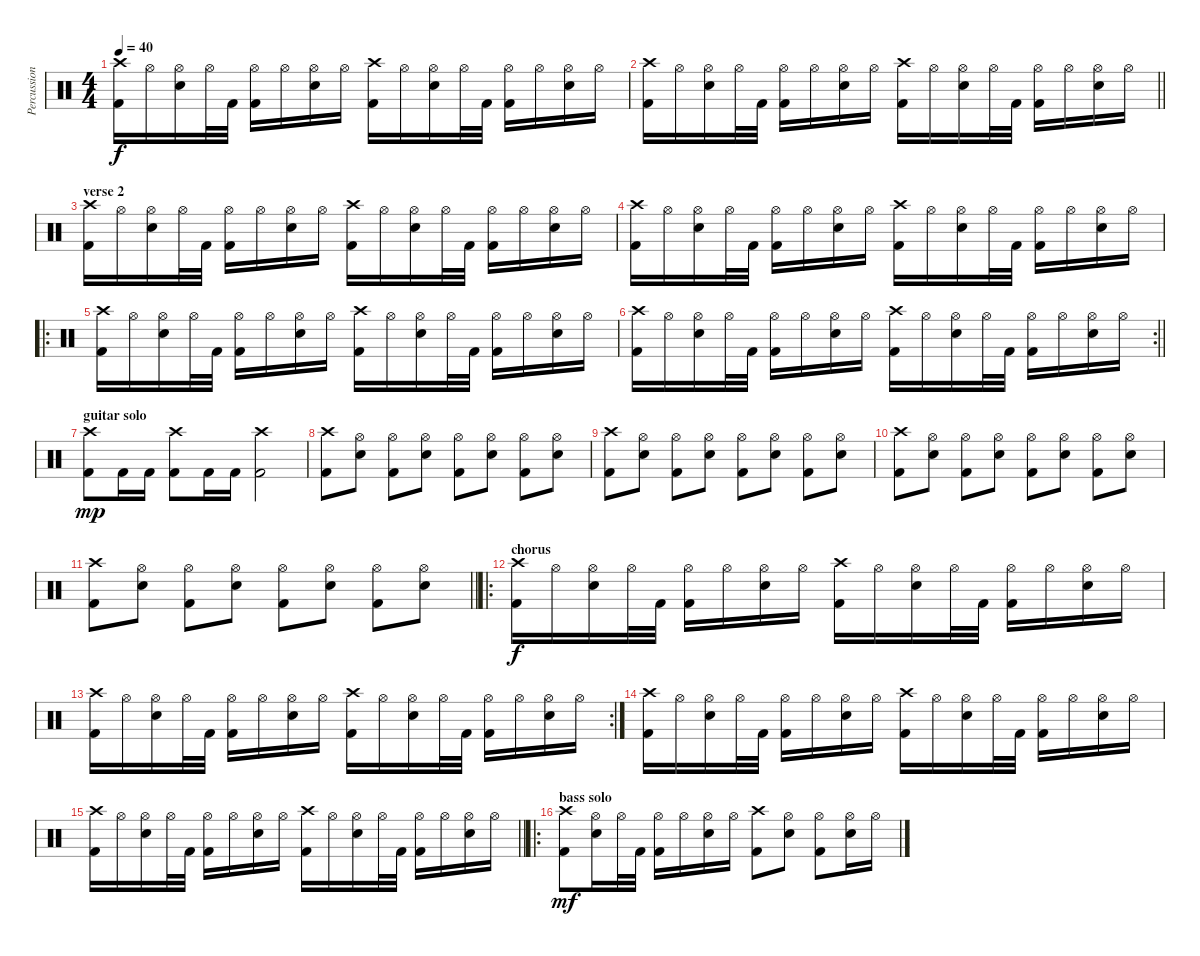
\track ("Percussion" "Percussion") {instrument percussion}
\staff {score}
\articulation defaults
\ts (4 4)
\tempo 40
\clef neutral
\ks c
("Crash high (hit)" "Kick (hit) 2").16{dy f} "Hi-Hat (open)".16 ("Hi-Hat (open)" "Snare (hit) 2").16 "Hi-Hat (open)".32 "Kick (hit) 2".32 ("Hi-Hat (open)" "Kick (hit) 2").16 "Hi-Hat (open)".16 ("Hi-Hat (open)" "Snare (hit) 2").16 "Hi-Hat (open)".16 ("Crash high (hit)" "Kick (hit) 2").16 "Hi-Hat (open)".16 ("Hi-Hat (open)" "Snare (hit) 2").16 "Hi-Hat (open)".32 "Kick (hit) 2".32 ("Hi-Hat (open)" "Kick (hit) 2").16 "Hi-Hat (open)".16 ("Hi-Hat (open)" "Snare (hit) 2").16 "Hi-Hat (open)".16 |
\barLineRight lightlight
("Crash high (hit)" "Kick (hit) 2").16 "Hi-Hat (open)".16 ("Hi-Hat (open)" "Snare (hit) 2").16 "Hi-Hat (open)".32 "Kick (hit) 2".32 ("Hi-Hat (open)" "Kick (hit) 2").16 "Hi-Hat (open)".16 ("Hi-Hat (open)" "Snare (hit) 2").16 "Hi-Hat (open)".16 ("Crash high (hit)" "Kick (hit) 2").16 "Hi-Hat (open)".16 ("Hi-Hat (open)" "Snare (hit) 2").16 "Hi-Hat (open)".32 "Kick (hit) 2".32 ("Hi-Hat (open)" "Kick (hit) 2").16 "Hi-Hat (open)".16 ("Hi-Hat (open)" "Snare (hit) 2").16 "Hi-Hat (open)".16 |
\section ("" "verse 2")
("Crash high (hit)" "Kick (hit) 2").16 "Hi-Hat (open)".16 ("Hi-Hat (open)" "Snare (hit) 2").16 "Hi-Hat (open)".32 "Kick (hit) 2".32 ("Hi-Hat (open)" "Kick (hit) 2").16 "Hi-Hat (open)".16 ("Hi-Hat (open)" "Snare (hit) 2").16 "Hi-Hat (open)".16 ("Crash high (hit)" "Kick (hit) 2").16 "Hi-Hat (open)".16 ("Hi-Hat (open)" "Snare (hit) 2").16 "Hi-Hat (open)".32 "Kick (hit) 2".32 ("Hi-Hat (open)" "Kick (hit) 2").16 "Hi-Hat (open)".16 ("Hi-Hat (open)" "Snare (hit) 2").16 "Hi-Hat (open)".16 |
("Crash high (hit)" "Kick (hit) 2").16 "Hi-Hat (open)".16 ("Hi-Hat (open)" "Snare (hit) 2").16 "Hi-Hat (open)".32 "Kick (hit) 2".32 ("Hi-Hat (open)" "Kick (hit) 2").16 "Hi-Hat (open)".16 ("Hi-Hat (open)" "Snare (hit) 2").16 "Hi-Hat (open)".16 ("Crash high (hit)" "Kick (hit) 2").16 "Hi-Hat (open)".16 ("Hi-Hat (open)" "Snare (hit) 2").16 "Hi-Hat (open)".32 "Kick (hit) 2".32 ("Hi-Hat (open)" "Kick (hit) 2").16 "Hi-Hat (open)".16 ("Hi-Hat (open)" "Snare (hit) 2").16 "Hi-Hat (open)".16 |
\ro
("Crash high (hit)" "Kick (hit) 2").16 "Hi-Hat (open)".16 ("Hi-Hat (open)" "Snare (hit) 2").16 "Hi-Hat (open)".32 "Kick (hit) 2".32 ("Hi-Hat (open)" "Kick (hit) 2").16 "Hi-Hat (open)".16 ("Hi-Hat (open)" "Snare (hit) 2").16 "Hi-Hat (open)".16 ("Crash high (hit)" "Kick (hit) 2").16 "Hi-Hat (open)".16 ("Hi-Hat (open)" "Snare (hit) 2").16 "Hi-Hat (open)".32 "Kick (hit) 2".32 ("Hi-Hat (open)" "Kick (hit) 2").16 "Hi-Hat (open)".16 ("Hi-Hat (open)" "Snare (hit) 2").16 "Hi-Hat (open)".16 |
\rc 2
\barLineRight lightlight
("Crash high (hit)" "Kick (hit) 2").16 "Hi-Hat (open)".16 ("Hi-Hat (open)" "Snare (hit) 2").16 "Hi-Hat (open)".32 "Kick (hit) 2".32 ("Hi-Hat (open)" "Kick (hit) 2").16 "Hi-Hat (open)".16 ("Hi-Hat (open)" "Snare (hit) 2").16 "Hi-Hat (open)".16 ("Crash high (hit)" "Kick (hit) 2").16 "Hi-Hat (open)".16 ("Hi-Hat (open)" "Snare (hit) 2").16 "Hi-Hat (open)".32 "Kick (hit) 2".32 ("Hi-Hat (open)" "Kick (hit) 2").16 "Hi-Hat (open)".16 ("Hi-Hat (open)" "Snare (hit) 2").16 "Hi-Hat (open)".16 |
\section ("" "guitar solo")
("Crash high (hit)" "Kick (hit) 2").8{dy mp} "Kick (hit) 2".16 "Kick (hit) 2".16 ("Crash high (hit)" "Kick (hit) 2").8 "Kick (hit) 2".16 "Kick (hit) 2".16 ("Crash high (hit)" "Kick (hit) 2").2 |
("Crash high (hit)" "Kick (hit) 2").8 ("Hi-Hat (open)" "Snare (hit) 2").8 ("Hi-Hat (open)" "Kick (hit) 2").8 ("Hi-Hat (open)" "Snare (hit) 2").8 ("Hi-Hat (open)" "Kick (hit) 2").8 ("Hi-Hat (open)" "Snare (hit) 2").8 ("Hi-Hat (open)" "Kick (hit) 2").8 ("Hi-Hat (open)" "Snare (hit) 2").8 |
("Crash high (hit)" "Kick (hit) 2").8 ("Hi-Hat (open)" "Snare (hit) 2").8 ("Hi-Hat (open)" "Kick (hit) 2").8 ("Hi-Hat (open)" "Snare (hit) 2").8 ("Hi-Hat (open)" "Kick (hit) 2").8 ("Hi-Hat (open)" "Snare (hit) 2").8 ("Hi-Hat (open)" "Kick (hit) 2").8 ("Hi-Hat (open)" "Snare (hit) 2").8 |
("Crash high (hit)" "Kick (hit) 2").8 ("Hi-Hat (open)" "Snare (hit) 2").8 ("Hi-Hat (open)" "Kick (hit) 2").8 ("Hi-Hat (open)" "Snare (hit) 2").8 ("Hi-Hat (open)" "Kick (hit) 2").8 ("Hi-Hat (open)" "Snare (hit) 2").8 ("Hi-Hat (open)" "Kick (hit) 2").8 ("Hi-Hat (open)" "Snare (hit) 2").8 |
\barLineRight lightlight
("Crash high (hit)" "Kick (hit) 2").8 ("Hi-Hat (open)" "Snare (hit) 2").8 ("Hi-Hat (open)" "Kick (hit) 2").8 ("Hi-Hat (open)" "Snare (hit) 2").8 ("Hi-Hat (open)" "Kick (hit) 2").8 ("Hi-Hat (open)" "Snare (hit) 2").8 ("Hi-Hat (open)" "Kick (hit) 2").8 ("Hi-Hat (open)" "Snare (hit) 2").8 |
\ro
\section ("" "chorus")
("Crash high (hit)" "Kick (hit) 2").16{dy f} "Hi-Hat (open)".16 ("Hi-Hat (open)" "Snare (hit) 2").16 "Hi-Hat (open)".32 "Kick (hit) 2".32 ("Hi-Hat (open)" "Kick (hit) 2").16 "Hi-Hat (open)".16 ("Hi-Hat (open)" "Snare (hit) 2").16 "Hi-Hat (open)".16 ("Crash high (hit)" "Kick (hit) 2").16 "Hi-Hat (open)".16 ("Hi-Hat (open)" "Snare (hit) 2").16 "Hi-Hat (open)".32 "Kick (hit) 2".32 ("Hi-Hat (open)" "Kick (hit) 2").16 "Hi-Hat (open)".16 ("Hi-Hat (open)" "Snare (hit) 2").16 "Hi-Hat (open)".16 |
\rc 2
("Crash high (hit)" "Kick (hit) 2").16 "Hi-Hat (open)".16 ("Hi-Hat (open)" "Snare (hit) 2").16 "Hi-Hat (open)".32 "Kick (hit) 2".32 ("Hi-Hat (open)" "Kick (hit) 2").16 "Hi-Hat (open)".16 ("Hi-Hat (open)" "Snare (hit) 2").16 "Hi-Hat (open)".16 ("Crash high (hit)" "Kick (hit) 2").16 "Hi-Hat (open)".16 ("Hi-Hat (open)" "Snare (hit) 2").16 "Hi-Hat (open)".32 "Kick (hit) 2".32 ("Hi-Hat (open)" "Kick (hit) 2").16 "Hi-Hat (open)".16 ("Hi-Hat (open)" "Snare (hit) 2").16 "Hi-Hat (open)".16 |
("Crash high (hit)" "Kick (hit) 2").16 "Hi-Hat (open)".16 ("Hi-Hat (open)" "Snare (hit) 2").16 "Hi-Hat (open)".32 "Kick (hit) 2".32 ("Hi-Hat (open)" "Kick (hit) 2").16 "Hi-Hat (open)".16 ("Hi-Hat (open)" "Snare (hit) 2").16 "Hi-Hat (open)".16 ("Crash high (hit)" "Kick (hit) 2").16 "Hi-Hat (open)".16 ("Hi-Hat (open)" "Snare (hit) 2").16 "Hi-Hat (open)".32 "Kick (hit) 2".32 ("Hi-Hat (open)" "Kick (hit) 2").16 "Hi-Hat (open)".16 ("Hi-Hat (open)" "Snare (hit) 2").16 "Hi-Hat (open)".16 |
\barLineRight lightlight
("Crash high (hit)" "Kick (hit) 2").16 "Hi-Hat (open)".16 ("Hi-Hat (open)" "Snare (hit) 2").16 "Hi-Hat (open)".32 "Kick (hit) 2".32 ("Hi-Hat (open)" "Kick (hit) 2").16 "Hi-Hat (open)".16 ("Hi-Hat (open)" "Snare (hit) 2").16 "Hi-Hat (open)".16 ("Crash high (hit)" "Kick (hit) 2").16 "Hi-Hat (open)".16 ("Hi-Hat (open)" "Snare (hit) 2").16 "Hi-Hat (open)".32 "Kick (hit) 2".32 ("Hi-Hat (open)" "Kick (hit) 2").16 "Hi-Hat (open)".16 ("Hi-Hat (open)" "Snare (hit) 2").16 "Hi-Hat (open)".16 |
\ro
\section ("" "bass solo")
("Crash high (hit)" "Kick (hit) 2").8{dy mf} ("Hi-Hat (open)" "Snare (hit) 2").16 "Hi-Hat (open)".32 "Kick (hit) 2".32 ("Hi-Hat (open)" "Kick (hit) 2").16 "Hi-Hat (open)".16 ("Hi-Hat (open)" "Snare (hit) 2").16 "Hi-Hat (open)".16 ("Crash high (hit)" "Kick (hit) 2").8 ("Hi-Hat (open)" "Snare (hit) 2").8 ("Hi-Hat (open)" "Kick (hit) 2").8 ("Hi-Hat (open)" "Snare (hit) 2").16 "Hi-Hat (open)".16
